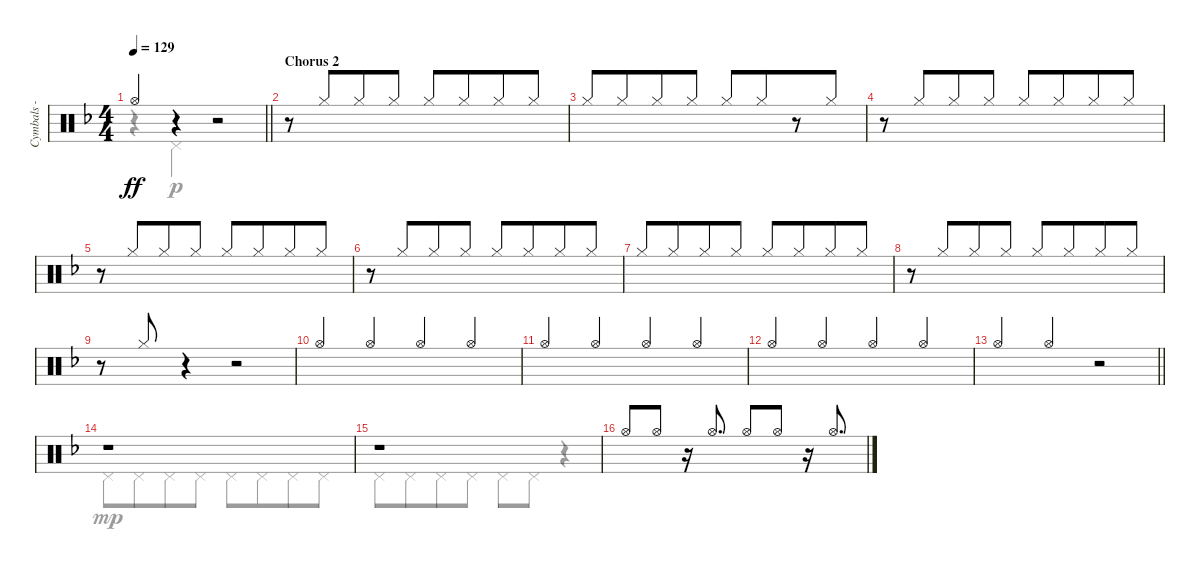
\track ("Cymbals - hi-hat" "Cymbals - ") {instrument percussion}
\staff {score}
\articulation defaults
\voice
\ts (4 4)
\tempo 129
\clef neutral
\barLineRight lightlight
\ks dminor "Hi-Hat (open)".4{dy ff volume 12 beam Up}
r.4 r.2 |
\section ("" "Chorus 2")
r.8{volume 7} "Hi-Hat (closed)".8{beam Up beam merge} "Hi-Hat (closed)".8{beam Up} "Hi-Hat (closed)".8{beam Up} "Hi-Hat (closed)".8{beam Up} "Hi-Hat (closed)".8{beam Up beam merge} "Hi-Hat (closed)".8{beam Up} "Hi-Hat (closed)".8{beam Up} |
"Hi-Hat (closed)".8{beam Up} "Hi-Hat (closed)".8{beam Up beam merge} "Hi-Hat (closed)".8{beam Up} "Hi-Hat (closed)".8{beam Up} "Hi-Hat (closed)".8{beam Up} "Hi-Hat (closed)".8{beam Up beam merge} r.8 "Hi-Hat (closed)".8{beam Up} |
r.8 "Hi-Hat (closed)".8{beam Up beam merge} "Hi-Hat (closed)".8{beam Up} "Hi-Hat (closed)".8{beam Up} "Hi-Hat (closed)".8{beam Up} "Hi-Hat (closed)".8{beam Up beam merge} "Hi-Hat (closed)".8{beam Up} "Hi-Hat (closed)".8{beam Up} |
r.8 "Hi-Hat (closed)".8{beam Up beam merge} "Hi-Hat (closed)".8{beam Up} "Hi-Hat (closed)".8{beam Up} "Hi-Hat (closed)".8{beam Up} "Hi-Hat (closed)".8{beam Up beam merge} "Hi-Hat (closed)".8{beam Up} "Hi-Hat (closed)".8{beam Up} |
r.8 "Hi-Hat (closed)".8{beam Up beam merge} "Hi-Hat (closed)".8{beam Up} "Hi-Hat (closed)".8{beam Up} "Hi-Hat (closed)".8{beam Up} "Hi-Hat (closed)".8{beam Up beam merge} "Hi-Hat (closed)".8{beam Up} "Hi-Hat (closed)".8{beam Up} |
"Hi-Hat (closed)".8{beam Up} "Hi-Hat (closed)".8{beam Up beam merge} "Hi-Hat (closed)".8{beam Up} "Hi-Hat (closed)".8{beam Up} "Hi-Hat (closed)".8{beam Up} "Hi-Hat (closed)".8{beam Up beam merge} "Hi-Hat (closed)".8{beam Up} "Hi-Hat (closed)".8{beam Up} |
r.8 "Hi-Hat (closed)".8{beam Up beam merge} "Hi-Hat (closed)".8{beam Up} "Hi-Hat (closed)".8{beam Up} "Hi-Hat (closed)".8{beam Up} "Hi-Hat (closed)".8{beam Up beam merge} "Hi-Hat (closed)".8{beam Up} "Hi-Hat (closed)".8{beam Up} |
r.8 "Hi-Hat (closed)".8{beam Up} r.4 r.2 |
"Hi-Hat (open)".4{volume 14 beam Up} "Hi-Hat (open)".4{beam Up} "Hi-Hat (open)".4{beam Up} "Hi-Hat (open)".4{beam Up} |
"Hi-Hat (open)".4{beam Up} "Hi-Hat (open)".4{beam Up} "Hi-Hat (open)".4{beam Up} "Hi-Hat (open)".4{beam Up} |
"Hi-Hat (open)".4{beam Up} "Hi-Hat (open)".4{beam Up} "Hi-Hat (open)".4{beam Up} "Hi-Hat (open)".4{beam Up} |
\barLineRight lightlight "Hi-Hat (open)".4{beam Up} "Hi-Hat (open)".4{beam Up}
r.2 |
r.1 |
r.1 |
"Hi-Hat (open)".8{beam Up} "Hi-Hat (open)".8{beam Up} r.16 "Hi-Hat (open)".8{d beam Up} "Hi-Hat (open)".8{beam Up} "Hi-Hat (open)".8{beam Up} r.16 "Hi-Hat (open)".8{d beam Up}
\voice
\clef neutral
\ottava regular
\simile none
\barLineRight lightlight
\ks dminor
r.4{dy p} "Pedal Hi-Hat (hit)".4{beam Down} r.2 |
|
|
|
|
|
|
|
|
|
|
|
\barLineRight lightlight
|
"Pedal Hi-Hat (hit)".8{dy mp beam Down} "Pedal Hi-Hat (hit)".8{beam Down beam merge} "Pedal Hi-Hat (hit)".8{beam Down} "Pedal Hi-Hat (hit)".8{beam Down} "Pedal Hi-Hat (hit)".8{beam Down} "Pedal Hi-Hat (hit)".8{beam Down beam merge} "Pedal Hi-Hat (hit)".8{beam Down} "Pedal Hi-Hat (hit)".8{beam Down} |
"Pedal Hi-Hat (hit)".8{beam Down} "Pedal Hi-Hat (hit)".8{beam Down beam merge} "Pedal Hi-Hat (hit)".8{beam Down} "Pedal Hi-Hat (hit)".8{beam Down} "Pedal Hi-Hat (hit)".8{beam Down} "Pedal Hi-Hat (hit)".8{beam Down} r.4 |
